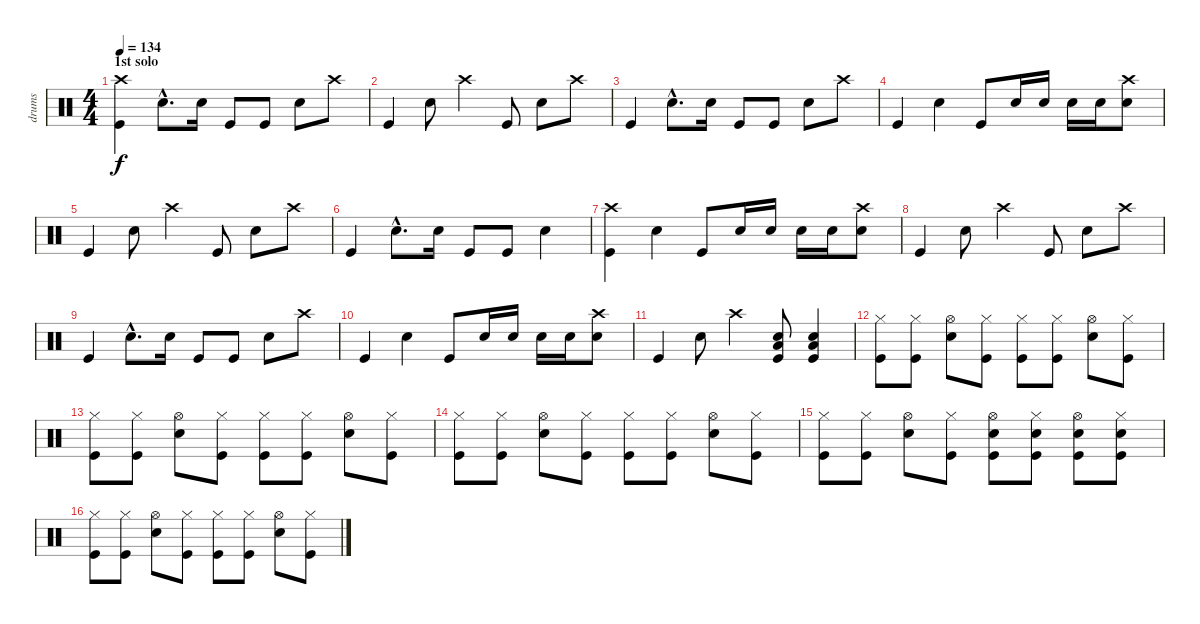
\track ("drums" "drums") {instrument percussion}
\staff {score}
\articulation defaults
\ts (4 4)
\section ("" "1st solo")
\tempo 134
\clef neutral
\ks c
("Kick (hit)" "Crash high (hit)").4{dy f} "Electric Snare (hit)"{hac}.8{d} "Electric Snare (hit)".16 "Kick (hit)".8 "Kick (hit)".8 "Electric Snare (hit)".8 "Crash high (hit)".8 |
"Kick (hit)".4 "Electric Snare (hit)".8 "Crash high (hit)".4 "Kick (hit)".8 "Electric Snare (hit)".8 "Crash high (hit)".8 |
"Kick (hit)".4 "Electric Snare (hit)"{hac}.8{d} "Electric Snare (hit)".16 "Kick (hit)".8 "Kick (hit)".8 "Electric Snare (hit)".8 "Crash high (hit)".8 |
"Kick (hit)".4 "Electric Snare (hit)".4 "Kick (hit)".8 "Electric Snare (hit)".16 "Electric Snare (hit)".16 "Electric Snare (hit)".16 "Electric Snare (hit)".16 ("Electric Snare (hit)" "Crash high (hit)").8 |
"Kick (hit)".4 "Electric Snare (hit)".8 "Crash high (hit)".4 "Kick (hit)".8 "Electric Snare (hit)".8 "Crash high (hit)".8 |
"Kick (hit)".4 "Electric Snare (hit)"{hac}.8{d} "Electric Snare (hit)".16 "Kick (hit)".8 "Kick (hit)".8 "Electric Snare (hit)".4 |
("Kick (hit)" "Crash high (hit)").4 "Electric Snare (hit)".4 "Kick (hit)".8 "Electric Snare (hit)".16 "Electric Snare (hit)".16 "Electric Snare (hit)".16 "Electric Snare (hit)".16 ("Electric Snare (hit)" "Crash high (hit)").8 |
"Kick (hit)".4 "Electric Snare (hit)".8 "Crash high (hit)".4 "Kick (hit)".8 "Electric Snare (hit)".8 "Crash high (hit)".8 |
"Kick (hit)".4 "Electric Snare (hit)"{hac}.8{d} "Electric Snare (hit)".16 "Kick (hit)".8 "Kick (hit)".8 "Electric Snare (hit)".8 "Crash high (hit)".8 |
"Kick (hit)".4 "Electric Snare (hit)".4 "Kick (hit)".8 "Electric Snare (hit)".16 "Electric Snare (hit)".16 "Electric Snare (hit)".16 "Electric Snare (hit)".16 ("Electric Snare (hit)" "Crash high (hit)").8 |
"Kick (hit)".4 "Electric Snare (hit)".8 "Crash high (hit)".4 ("Electric Snare (hit)" "Kick (hit)" "Low Floor Tom (hit)").8 ("Electric Snare (hit)" "Kick (hit)" "Low Floor Tom (hit)").4 |
\section ("" "")
("Kick (hit)" "Hi-Hat (closed)").8{volume 11} ("Kick (hit)" "Hi-Hat (closed)").8 ("Electric Snare (hit)" "Hi-Hat (open)").8 ("Kick (hit)" "Hi-Hat (closed)").8 ("Kick (hit)" "Hi-Hat (closed)").8 ("Kick (hit)" "Hi-Hat (closed)").8 ("Electric Snare (hit)" "Hi-Hat (open)").8 ("Kick (hit)" "Hi-Hat (closed)").8 |
("Kick (hit)" "Hi-Hat (closed)").8 ("Kick (hit)" "Hi-Hat (closed)").8 ("Electric Snare (hit)" "Hi-Hat (open)").8 ("Kick (hit)" "Hi-Hat (closed)").8 ("Kick (hit)" "Hi-Hat (closed)").8 ("Kick (hit)" "Hi-Hat (closed)").8 ("Electric Snare (hit)" "Hi-Hat (open)").8 ("Kick (hit)" "Hi-Hat (closed)").8 |
("Kick (hit)" "Hi-Hat (closed)").8 ("Kick (hit)" "Hi-Hat (closed)").8 ("Electric Snare (hit)" "Hi-Hat (open)").8 ("Kick (hit)" "Hi-Hat (closed)").8 ("Kick (hit)" "Hi-Hat (closed)").8 ("Kick (hit)" "Hi-Hat (closed)").8 ("Electric Snare (hit)" "Hi-Hat (open)").8 ("Kick (hit)" "Hi-Hat (closed)").8 |
("Kick (hit)" "Hi-Hat (closed)").8 ("Kick (hit)" "Hi-Hat (closed)").8 ("Electric Snare (hit)" "Hi-Hat (open)").8 ("Kick (hit)" "Hi-Hat (closed)").8 ("Electric Snare (hit)" "Hi-Hat (open)" "Kick (hit)").8 ("Electric Snare (hit)" "Hi-Hat (closed)" "Kick (hit)").8 ("Electric Snare (hit)" "Hi-Hat (open)" "Kick (hit)").8 ("Electric Snare (hit)" "Hi-Hat (closed)" "Kick (hit)").8 |
\section ("" "")
("Kick (hit)" "Hi-Hat (closed)").8 ("Kick (hit)" "Hi-Hat (closed)").8 ("Electric Snare (hit)" "Hi-Hat (open)").8 ("Kick (hit)" "Hi-Hat (closed)").8 ("Kick (hit)" "Hi-Hat (closed)").8 ("Kick (hit)" "Hi-Hat (closed)").8 ("Electric Snare (hit)" "Hi-Hat (open)").8 ("Kick (hit)" "Hi-Hat (closed)").8
